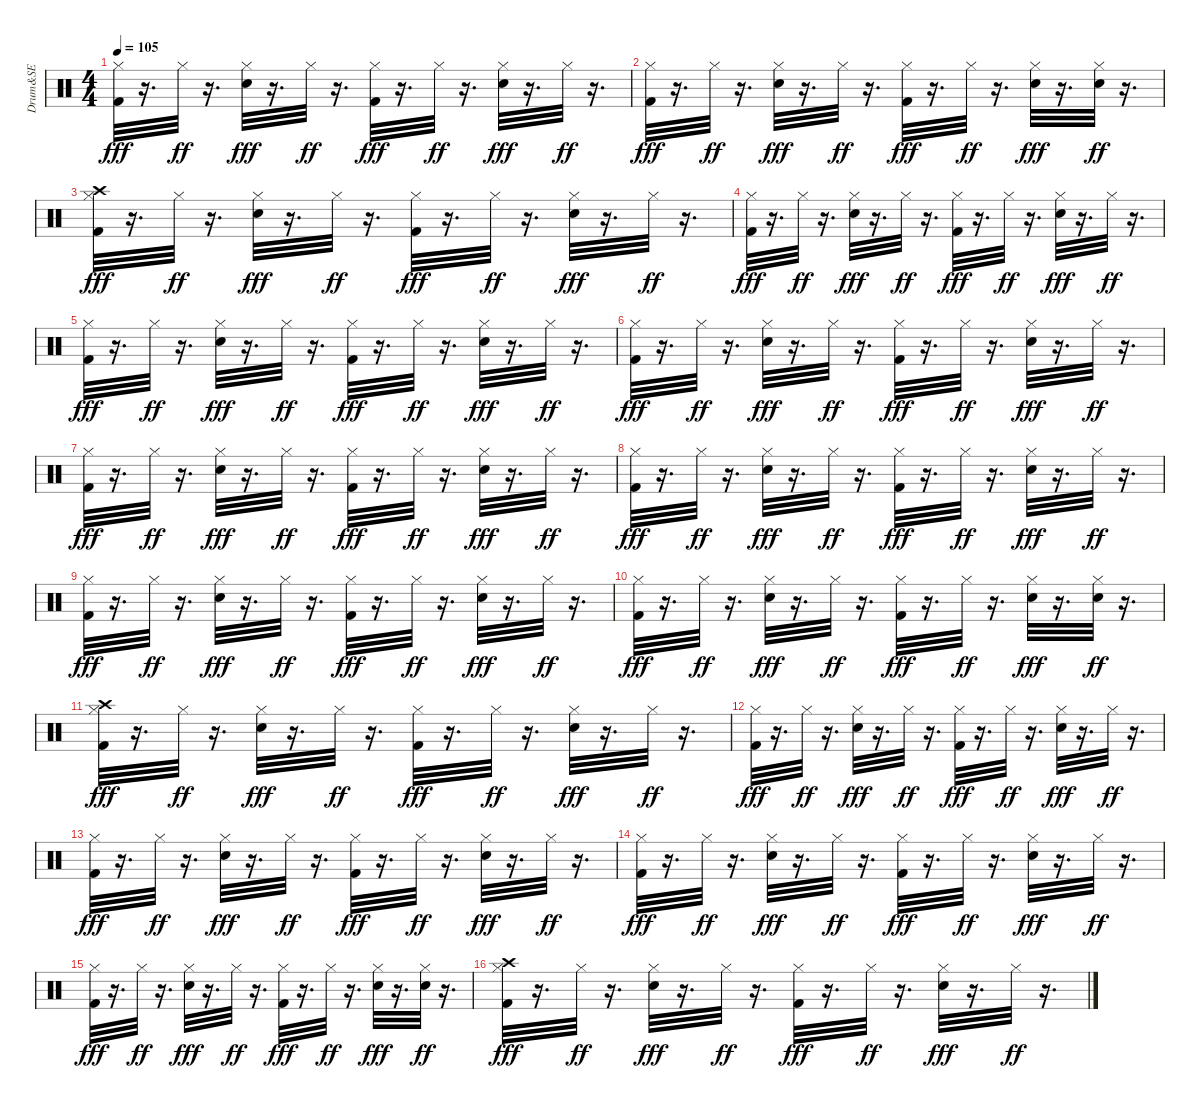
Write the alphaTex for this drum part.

\track ("Drum&SE" "Drum&SE") {instrument percussion}
\staff {score}
\articulation defaults
\ts (4 4)
\tempo 105
\clef neutral
\ks c
("Kick (hit) 2" "Hi-Hat (closed)").32{dy fff} r.16{d} "Hi-Hat (closed)".32{dy ff} r.16{d} ("Snare (hit) 2" "Hi-Hat (closed)").32{dy fff} r.16{d} "Hi-Hat (closed)".32{dy ff} r.16{d} ("Kick (hit) 2" "Hi-Hat (closed)").32{dy fff} r.16{d} "Hi-Hat (closed)".32{dy ff} r.16{d} ("Snare (hit) 2" "Hi-Hat (closed)").32{dy fff} r.16{d} "Hi-Hat (closed)".32{dy ff} r.16{d} |
("Kick (hit) 2" "Hi-Hat (closed)").32{dy fff} r.16{d} "Hi-Hat (closed)".32{dy ff} r.16{d} ("Snare (hit) 2" "Hi-Hat (closed)").32{dy fff} r.16{d} "Hi-Hat (closed)".32{dy ff} r.16{d} ("Kick (hit) 2" "Hi-Hat (closed)").32{dy fff} r.16{d} "Hi-Hat (closed)".32{dy ff} r.16{d} ("Snare (hit) 2" "Hi-Hat (closed)").32{dy fff} r.16{d} ("Snare (hit) 2" "Hi-Hat (closed)").32{dy ff} r.16{d} |
("Kick (hit) 2" "Hi-Hat (closed)" "Crash high (hit)").32{dy fff} r.16{d} "Hi-Hat (closed)".32{dy ff} r.16{d} ("Snare (hit) 2" "Hi-Hat (closed)").32{dy fff} r.16{d} "Hi-Hat (closed)".32{dy ff} r.16{d} ("Kick (hit) 2" "Hi-Hat (closed)").32{dy fff} r.16{d} "Hi-Hat (closed)".32{dy ff} r.16{d} ("Snare (hit) 2" "Hi-Hat (closed)").32{dy fff} r.16{d} "Hi-Hat (closed)".32{dy ff} r.16{d} |
("Kick (hit) 2" "Hi-Hat (closed)").32{dy fff} r.16{d} "Hi-Hat (closed)".32{dy ff} r.16{d} ("Snare (hit) 2" "Hi-Hat (closed)").32{dy fff} r.16{d} "Hi-Hat (closed)".32{dy ff} r.16{d} ("Kick (hit) 2" "Hi-Hat (closed)").32{dy fff} r.16{d} "Hi-Hat (closed)".32{dy ff} r.16{d} ("Snare (hit) 2" "Hi-Hat (closed)").32{dy fff} r.16{d} "Hi-Hat (closed)".32{dy ff} r.16{d} |
("Kick (hit) 2" "Hi-Hat (closed)").32{dy fff} r.16{d} "Hi-Hat (closed)".32{dy ff} r.16{d} ("Snare (hit) 2" "Hi-Hat (closed)").32{dy fff} r.16{d} "Hi-Hat (closed)".32{dy ff} r.16{d} ("Kick (hit) 2" "Hi-Hat (closed)").32{dy fff} r.16{d} "Hi-Hat (closed)".32{dy ff} r.16{d} ("Snare (hit) 2" "Hi-Hat (closed)").32{dy fff} r.16{d} "Hi-Hat (closed)".32{dy ff} r.16{d} |
("Kick (hit) 2" "Hi-Hat (closed)").32{dy fff} r.16{d} "Hi-Hat (closed)".32{dy ff} r.16{d} ("Snare (hit) 2" "Hi-Hat (closed)").32{dy fff} r.16{d} "Hi-Hat (closed)".32{dy ff} r.16{d} ("Kick (hit) 2" "Hi-Hat (closed)").32{dy fff} r.16{d} "Hi-Hat (closed)".32{dy ff} r.16{d} ("Snare (hit) 2" "Hi-Hat (closed)").32{dy fff} r.16{d} "Hi-Hat (closed)".32{dy ff} r.16{d} |
("Kick (hit) 2" "Hi-Hat (closed)").32{dy fff} r.16{d} "Hi-Hat (closed)".32{dy ff} r.16{d} ("Snare (hit) 2" "Hi-Hat (closed)").32{dy fff} r.16{d} "Hi-Hat (closed)".32{dy ff} r.16{d} ("Kick (hit) 2" "Hi-Hat (closed)").32{dy fff} r.16{d} "Hi-Hat (closed)".32{dy ff} r.16{d} ("Snare (hit) 2" "Hi-Hat (closed)").32{dy fff} r.16{d} "Hi-Hat (closed)".32{dy ff} r.16{d} |
("Kick (hit) 2" "Hi-Hat (closed)").32{dy fff} r.16{d} "Hi-Hat (closed)".32{dy ff} r.16{d} ("Snare (hit) 2" "Hi-Hat (closed)").32{dy fff} r.16{d} "Hi-Hat (closed)".32{dy ff} r.16{d} ("Kick (hit) 2" "Hi-Hat (closed)").32{dy fff} r.16{d} "Hi-Hat (closed)".32{dy ff} r.16{d} ("Snare (hit) 2" "Hi-Hat (closed)").32{dy fff} r.16{d} "Hi-Hat (closed)".32{dy ff} r.16{d} |
("Kick (hit) 2" "Hi-Hat (closed)").32{dy fff} r.16{d} "Hi-Hat (closed)".32{dy ff} r.16{d} ("Snare (hit) 2" "Hi-Hat (closed)").32{dy fff} r.16{d} "Hi-Hat (closed)".32{dy ff} r.16{d} ("Kick (hit) 2" "Hi-Hat (closed)").32{dy fff} r.16{d} "Hi-Hat (closed)".32{dy ff} r.16{d} ("Snare (hit) 2" "Hi-Hat (closed)").32{dy fff} r.16{d} "Hi-Hat (closed)".32{dy ff} r.16{d} |
("Kick (hit) 2" "Hi-Hat (closed)").32{dy fff} r.16{d} "Hi-Hat (closed)".32{dy ff} r.16{d} ("Snare (hit) 2" "Hi-Hat (closed)").32{dy fff} r.16{d} "Hi-Hat (closed)".32{dy ff} r.16{d} ("Kick (hit) 2" "Hi-Hat (closed)").32{dy fff} r.16{d} "Hi-Hat (closed)".32{dy ff} r.16{d} ("Snare (hit) 2" "Hi-Hat (closed)").32{dy fff} r.16{d} ("Snare (hit) 2" "Hi-Hat (closed)").32{dy ff} r.16{d} |
("Kick (hit) 2" "Hi-Hat (closed)" "Crash high (hit)").32{dy fff} r.16{d} "Hi-Hat (closed)".32{dy ff volume 9} r.16{d} ("Snare (hit) 2" "Hi-Hat (closed)").32{dy fff volume 9} r.16{d} "Hi-Hat (closed)".32{dy ff} r.16{d} ("Kick (hit) 2" "Hi-Hat (closed)").32{dy fff} r.16{d} "Hi-Hat (closed)".32{dy ff} r.16{d} ("Snare (hit) 2" "Hi-Hat (closed)").32{dy fff} r.16{d} "Hi-Hat (closed)".32{dy ff} r.16{d} |
("Kick (hit) 2" "Hi-Hat (closed)").32{dy fff} r.16{d} "Hi-Hat (closed)".32{dy ff} r.16{d} ("Snare (hit) 2" "Hi-Hat (closed)").32{dy fff} r.16{d} "Hi-Hat (closed)".32{dy ff} r.16{d} ("Kick (hit) 2" "Hi-Hat (closed)").32{dy fff} r.16{d} "Hi-Hat (closed)".32{dy ff} r.16{d} ("Snare (hit) 2" "Hi-Hat (closed)").32{dy fff} r.16{d} "Hi-Hat (closed)".32{dy ff} r.16{d} |
("Kick (hit) 2" "Hi-Hat (closed)").32{dy fff} r.16{d} "Hi-Hat (closed)".32{dy ff} r.16{d} ("Snare (hit) 2" "Hi-Hat (closed)").32{dy fff} r.16{d} "Hi-Hat (closed)".32{dy ff} r.16{d} ("Kick (hit) 2" "Hi-Hat (closed)").32{dy fff} r.16{d} "Hi-Hat (closed)".32{dy ff} r.16{d} ("Snare (hit) 2" "Hi-Hat (closed)").32{dy fff} r.16{d} "Hi-Hat (closed)".32{dy ff} r.16{d} |
("Kick (hit) 2" "Hi-Hat (closed)").32{dy fff} r.16{d} "Hi-Hat (closed)".32{dy ff} r.16{d} ("Snare (hit) 2" "Hi-Hat (closed)").32{dy fff} r.16{d} "Hi-Hat (closed)".32{dy ff} r.16{d} ("Kick (hit) 2" "Hi-Hat (closed)").32{dy fff} r.16{d} "Hi-Hat (closed)".32{dy ff} r.16{d} ("Snare (hit) 2" "Hi-Hat (closed)").32{dy fff} r.16{d} "Hi-Hat (closed)".32{dy ff} r.16{d} |
("Kick (hit) 2" "Hi-Hat (closed)").32{dy fff} r.16{d} "Hi-Hat (closed)".32{dy ff} r.16{d} ("Snare (hit) 2" "Hi-Hat (closed)").32{dy fff} r.16{d} "Hi-Hat (closed)".32{dy ff} r.16{d} ("Kick (hit) 2" "Hi-Hat (closed)").32{dy fff} r.16{d} "Hi-Hat (closed)".32{dy ff} r.16{d} ("Snare (hit) 2" "Hi-Hat (closed)").32{dy fff} r.16{d} ("Snare (hit) 2" "Hi-Hat (closed)").32{dy ff} r.16{d} |
("Kick (hit) 2" "Hi-Hat (closed)" "Crash high (hit)").32{dy fff} r.16{d} "Hi-Hat (closed)".32{dy ff} r.16{d} ("Snare (hit) 2" "Hi-Hat (closed)").32{dy fff} r.16{d} "Hi-Hat (closed)".32{dy ff} r.16{d} ("Kick (hit) 2" "Hi-Hat (closed)").32{dy fff} r.16{d} "Hi-Hat (closed)".32{dy ff} r.16{d} ("Snare (hit) 2" "Hi-Hat (closed)").32{dy fff} r.16{d} "Hi-Hat (closed)".32{dy ff} r.16{d}
